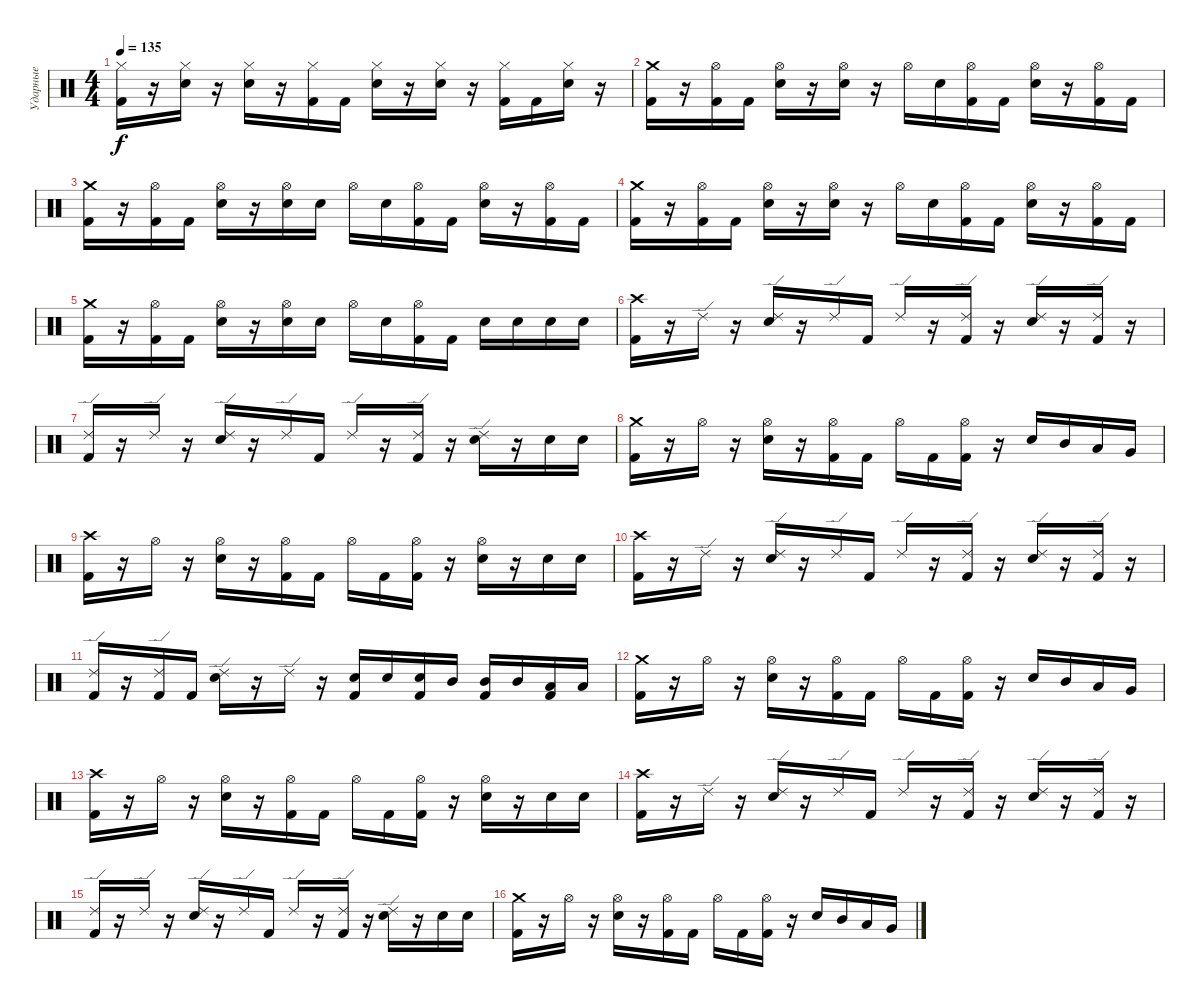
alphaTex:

\track ("Ударные" "Ударные") {instrument percussion}
\staff {score}
\articulation defaults
\ts (4 4)
\tempo 135
\clef neutral
\ks c
("Hi-Hat (closed)" "Kick (hit) 2").16{dy f} r.16 ("Hi-Hat (closed)" "Electric Snare (hit)").16 r.16 ("Hi-Hat (closed)" "Electric Snare (hit)").16 r.16 ("Hi-Hat (closed)" "Kick (hit) 2").16 "Kick (hit) 2".16 ("Hi-Hat (closed)" "Electric Snare (hit)").16 r.16 ("Hi-Hat (closed)" "Electric Snare (hit)").16 r.16 ("Hi-Hat (closed)" "Kick (hit) 2").16 "Kick (hit) 2".16 ("Hi-Hat (closed)" "Electric Snare (hit)").16 r.16 |
("Crash medium (hit)" "Kick (hit) 2").16 r.16 ("Hi-Hat (open)" "Kick (hit) 2").16 "Kick (hit) 2".16 ("Hi-Hat (open)" "Electric Snare (hit)").16 r.16 ("Hi-Hat (open)" "Electric Snare (hit)").16 r.16 "Hi-Hat (open)".16 "Electric Snare (hit)".16 ("Hi-Hat (open)" "Kick (hit) 2").16 "Kick (hit) 2".16 ("Hi-Hat (open)" "Electric Snare (hit)").16 r.16 ("Hi-Hat (open)" "Kick (hit) 2").16 "Kick (hit) 2".16 |
("Crash medium (hit)" "Kick (hit) 2").16 r.16 ("Hi-Hat (open)" "Kick (hit) 2").16 "Kick (hit) 2".16 ("Hi-Hat (open)" "Electric Snare (hit)").16 r.16 ("Hi-Hat (open)" "Electric Snare (hit)").16 "Electric Snare (hit)".16 "Hi-Hat (open)".16 "Electric Snare (hit)".16 ("Hi-Hat (open)" "Kick (hit) 2").16 "Kick (hit) 2".16 ("Hi-Hat (open)" "Electric Snare (hit)").16 r.16 ("Hi-Hat (open)" "Kick (hit) 2").16 "Kick (hit) 2".16 |
("Crash medium (hit)" "Kick (hit) 2").16 r.16 ("Hi-Hat (open)" "Kick (hit) 2").16 "Kick (hit) 2".16 ("Hi-Hat (open)" "Electric Snare (hit)").16 r.16 ("Hi-Hat (open)" "Electric Snare (hit)").16 r.16 "Hi-Hat (open)".16 "Electric Snare (hit)".16 ("Hi-Hat (open)" "Kick (hit) 2").16 "Kick (hit) 2".16 ("Hi-Hat (open)" "Electric Snare (hit)").16 r.16 ("Hi-Hat (open)" "Kick (hit) 2").16 "Kick (hit) 2".16 |
("Crash medium (hit)" "Kick (hit) 2").16 r.16 ("Hi-Hat (open)" "Kick (hit) 2").16 "Kick (hit) 2".16 ("Hi-Hat (open)" "Electric Snare (hit)").16 r.16 ("Hi-Hat (open)" "Electric Snare (hit)").16 "Electric Snare (hit)".16 "Hi-Hat (open)".16 "Electric Snare (hit)".16 ("Hi-Hat (open)" "Kick (hit) 2").16 "Kick (hit) 2".16 "Electric Snare (hit)".16 "Electric Snare (hit)".16 "Electric Snare (hit)".16 "Electric Snare (hit)".16 |
("Crash high (hit)" "Kick (hit) 2").16 r.16 "Ride (edge) 2".16 r.16 ("Ride (edge) 2" "Electric Snare (hit)").16 r.16 "Ride (edge) 2".16 "Kick (hit) 2".16 "Ride (edge) 2".16 r.16 ("Ride (edge) 2" "Kick (hit) 2").16 r.16 ("Ride (edge) 2" "Electric Snare (hit)").16 r.16 ("Ride (edge) 2" "Kick (hit) 2").16 r.16 |
("Ride (edge) 2" "Kick (hit) 2").16 r.16 "Ride (edge) 2".16 r.16 ("Ride (edge) 2" "Electric Snare (hit)").16 r.16 "Ride (edge) 2".16 "Kick (hit) 2".16 "Ride (edge) 2".16 r.16 ("Ride (edge) 2" "Kick (hit) 2").16 r.16 ("Ride (edge) 2" "Electric Snare (hit)").16 r.16 "Electric Snare (hit)".16 "Electric Snare (hit)".16 |
("Crash medium (hit)" "Kick (hit) 2").16 r.16 "Hi-Hat (open)".16 r.16 ("Hi-Hat (open)" "Electric Snare (hit)").16 r.16 ("Hi-Hat (open)" "Kick (hit) 2").16 "Kick (hit) 2".16 "Hi-Hat (open)".16 "Kick (hit) 2".16 ("Hi-Hat (open)" "Kick (hit) 2").16 r.16 "Electric Snare (hit)".16 "Mid Tom (hit)".16 "Low Tom (hit)".16 "Very Low Tom (hit)".16 |
("Crash high (hit)" "Kick (hit) 2").16 r.16 "Hi-Hat (open)".16 r.16 ("Hi-Hat (open)" "Electric Snare (hit)").16 r.16 ("Hi-Hat (open)" "Kick (hit) 2").16 "Kick (hit) 2".16 "Hi-Hat (open)".16 "Kick (hit) 2".16 ("Hi-Hat (open)" "Kick (hit) 2").16 r.16 ("Hi-Hat (open)" "Electric Snare (hit)").16 r.16 "Electric Snare (hit)".16 "Electric Snare (hit)".16 |
("Crash high (hit)" "Kick (hit) 2").16 r.16 "Ride (edge) 2".16 r.16 ("Ride (edge) 2" "Electric Snare (hit)").16 r.16 "Ride (edge) 2".16 "Kick (hit) 2".16 "Ride (edge) 2".16 r.16 ("Ride (edge) 2" "Kick (hit) 2").16 r.16 ("Ride (edge) 2" "Electric Snare (hit)").16 r.16 ("Ride (edge) 2" "Kick (hit) 2").16 r.16 |
("Ride (edge) 2" "Kick (hit) 2").16 r.16 ("Ride (edge) 2" "Kick (hit) 2").16 "Kick (hit) 2".16 ("Ride (edge) 2" "Electric Snare (hit)").16 r.16 "Ride (edge) 2".16 r.16 ("Electric Snare (hit)" "Kick (hit) 2").16 "Electric Snare (hit)".16 ("Electric Snare (hit)" "Kick (hit) 2").16 "Mid Tom (hit)".16 ("Mid Tom (hit)" "Kick (hit) 2").16 "Mid Tom (hit)".16 ("Low Tom (hit)" "Kick (hit) 2").16 "Low Tom (hit)".16 |
("Crash medium (hit)" "Kick (hit) 2").16 r.16 "Hi-Hat (open)".16 r.16 ("Hi-Hat (open)" "Electric Snare (hit)").16 r.16 ("Hi-Hat (open)" "Kick (hit) 2").16 "Kick (hit) 2".16 "Hi-Hat (open)".16 "Kick (hit) 2".16 ("Hi-Hat (open)" "Kick (hit) 2").16 r.16 "Electric Snare (hit)".16 "Mid Tom (hit)".16 "Low Tom (hit)".16 "Very Low Tom (hit)".16 |
("Crash high (hit)" "Kick (hit) 2").16 r.16 "Hi-Hat (open)".16 r.16 ("Hi-Hat (open)" "Electric Snare (hit)").16 r.16 ("Hi-Hat (open)" "Kick (hit) 2").16 "Kick (hit) 2".16 "Hi-Hat (open)".16 "Kick (hit) 2".16 ("Hi-Hat (open)" "Kick (hit) 2").16 r.16 ("Hi-Hat (open)" "Electric Snare (hit)").16 r.16 "Electric Snare (hit)".16 "Electric Snare (hit)".16 |
("Crash high (hit)" "Kick (hit) 2").16 r.16 "Ride (edge) 2".16 r.16 ("Ride (edge) 2" "Electric Snare (hit)").16 r.16 "Ride (edge) 2".16 "Kick (hit) 2".16 "Ride (edge) 2".16 r.16 ("Ride (edge) 2" "Kick (hit) 2").16 r.16 ("Ride (edge) 2" "Electric Snare (hit)").16 r.16 ("Ride (edge) 2" "Kick (hit) 2").16 r.16 |
("Ride (edge) 2" "Kick (hit) 2").16 r.16 "Ride (edge) 2".16 r.16 ("Ride (edge) 2" "Electric Snare (hit)").16 r.16 "Ride (edge) 2".16 "Kick (hit) 2".16 "Ride (edge) 2".16 r.16 ("Ride (edge) 2" "Kick (hit) 2").16 r.16 ("Ride (edge) 2" "Electric Snare (hit)").16 r.16 "Electric Snare (hit)".16 "Electric Snare (hit)".16 |
("Crash medium (hit)" "Kick (hit) 2").16 r.16 "Hi-Hat (open)".16 r.16 ("Hi-Hat (open)" "Electric Snare (hit)").16 r.16 ("Hi-Hat (open)" "Kick (hit) 2").16 "Kick (hit) 2".16 "Hi-Hat (open)".16 "Kick (hit) 2".16 ("Hi-Hat (open)" "Kick (hit) 2").16 r.16 "Electric Snare (hit)".16 "Mid Tom (hit)".16 "Low Tom (hit)".16 "Very Low Tom (hit)".16
